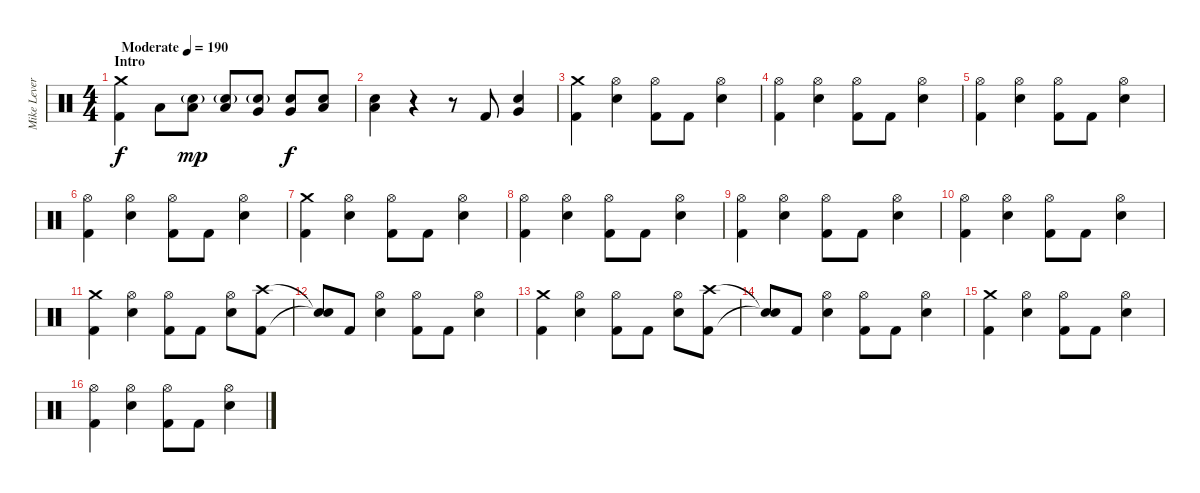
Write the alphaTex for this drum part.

\track ("Mike Leverence - Drums" "Mike Lever") {instrument percussion}
\staff {score}
\articulation defaults
\ts (4 4)
\section ("" "Intro")
\tempo (190 "Moderate")
\clef neutral
\ks c
("Crash medium (hit)" "Kick (hit) 2").4{dy f} "Low Floor Tom (hit)".8 ("Electric Snare (hit)"{g} "Low Floor Tom (hit)").8{dy mp} ("Electric Snare (hit)"{g} "Low Floor Tom (hit)").8 ("Electric Snare (hit)"{g} "Very Low Tom (hit)").8 ("Electric Snare (hit)" "Very Low Tom (hit)").8{dy f} ("Electric Snare (hit)" "Low Tom (hit)").8 |
("Electric Snare (hit)" "Low Tom (hit)").4 r.4 r.8 "Kick (hit) 2".8 ("Very Low Tom (hit)" "Electric Snare (hit)").4 |
("Crash medium (hit)" "Kick (hit) 2").4 ("Hi-Hat (open)" "Electric Snare (hit)").4 ("Hi-Hat (open)" "Kick (hit) 2").8 "Kick (hit) 2".8 ("Hi-Hat (open)" "Electric Snare (hit)").4 |
("Hi-Hat (open)" "Kick (hit) 2").4 ("Hi-Hat (open)" "Electric Snare (hit)").4 ("Hi-Hat (open)" "Kick (hit) 2").8 "Kick (hit) 2".8 ("Hi-Hat (open)" "Electric Snare (hit)").4 |
("Hi-Hat (open)" "Kick (hit) 2").4 ("Hi-Hat (open)" "Electric Snare (hit)").4 ("Hi-Hat (open)" "Kick (hit) 2").8 "Kick (hit) 2".8 ("Hi-Hat (open)" "Electric Snare (hit)").4 |
("Hi-Hat (open)" "Kick (hit) 2").4 ("Hi-Hat (open)" "Electric Snare (hit)").4 ("Hi-Hat (open)" "Kick (hit) 2").8 "Kick (hit) 2".8 ("Hi-Hat (open)" "Electric Snare (hit)").4 |
("Crash medium (hit)" "Kick (hit) 2").4 ("Hi-Hat (open)" "Electric Snare (hit)").4 ("Hi-Hat (open)" "Kick (hit) 2").8 "Kick (hit) 2".8 ("Hi-Hat (open)" "Electric Snare (hit)").4 |
("Hi-Hat (open)" "Kick (hit) 2").4 ("Hi-Hat (open)" "Electric Snare (hit)").4 ("Hi-Hat (open)" "Kick (hit) 2").8 "Kick (hit) 2".8 ("Hi-Hat (open)" "Electric Snare (hit)").4 |
("Hi-Hat (open)" "Kick (hit) 2").4 ("Hi-Hat (open)" "Electric Snare (hit)").4 ("Hi-Hat (open)" "Kick (hit) 2").8 "Kick (hit) 2".8 ("Hi-Hat (open)" "Electric Snare (hit)").4 |
("Hi-Hat (open)" "Kick (hit) 2").4 ("Hi-Hat (open)" "Electric Snare (hit)").4 ("Hi-Hat (open)" "Kick (hit) 2").8 "Kick (hit) 2".8 ("Hi-Hat (open)" "Electric Snare (hit)").4 |
("Crash medium (hit)" "Kick (hit) 2").4 ("Hi-Hat (open)" "Electric Snare (hit)").4 ("Hi-Hat (open)" "Kick (hit) 2").8 "Kick (hit) 2".8 ("Hi-Hat (open)" "Electric Snare (hit)").8 ("Crash high (hit)" "Kick (hit) 2").8 |
("Snare (hit)"{t} "Snare (hit)"{t}).8 "Kick (hit) 2".8 ("Hi-Hat (open)" "Electric Snare (hit)").4 ("Hi-Hat (open)" "Kick (hit) 2").8 "Kick (hit) 2".8 ("Hi-Hat (open)" "Electric Snare (hit)").4 |
("Crash medium (hit)" "Kick (hit) 2").4 ("Hi-Hat (open)" "Electric Snare (hit)").4 ("Hi-Hat (open)" "Kick (hit) 2").8 "Kick (hit) 2".8 ("Hi-Hat (open)" "Electric Snare (hit)").8 ("Crash high (hit)" "Kick (hit) 2").8 |
("Snare (hit)"{t} "Snare (hit)"{t}).8 "Kick (hit) 2".8 ("Hi-Hat (open)" "Electric Snare (hit)").4 ("Hi-Hat (open)" "Kick (hit) 2").8 "Kick (hit) 2".8 ("Hi-Hat (open)" "Electric Snare (hit)").4 |
("Crash medium (hit)" "Kick (hit) 2").4 ("Hi-Hat (open)" "Electric Snare (hit)").4 ("Hi-Hat (open)" "Kick (hit) 2").8 "Kick (hit) 2".8 ("Hi-Hat (open)" "Electric Snare (hit)").4 |
("Hi-Hat (open)" "Kick (hit) 2").4 ("Hi-Hat (open)" "Electric Snare (hit)").4 ("Hi-Hat (open)" "Kick (hit) 2").8 "Kick (hit) 2".8 ("Hi-Hat (open)" "Electric Snare (hit)").4
